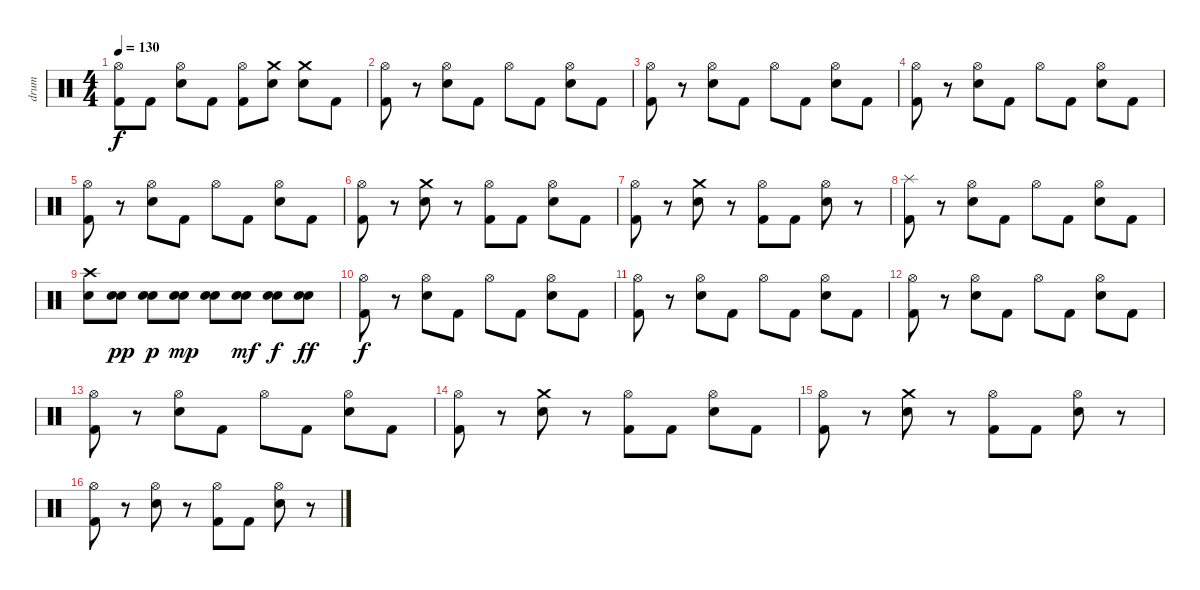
\track ("drum" "drum") {instrument percussion}
\staff {score}
\articulation defaults
\ts (4 4)
\tempo 130
\clef neutral
\ks c
("Hi-Hat (open)" "Kick (hit) 2").8{dy f} "Kick (hit) 2".8 ("Hi-Hat (open)" "Electric Snare (hit)").8 "Kick (hit) 2".8 ("Kick (hit) 2" "Hi-Hat (open)").8 ("Crash medium (hit)" "Electric Snare (hit)").8 ("Crash medium (hit)" "Electric Snare (hit)").8 "Kick (hit) 2".8 |
("Hi-Hat (open)" "Kick (hit) 2").8 r.8 ("Hi-Hat (open)" "Electric Snare (hit)").8 "Kick (hit) 2".8 "Hi-Hat (open)".8 "Kick (hit) 2".8 ("Hi-Hat (open)" "Electric Snare (hit)").8 "Kick (hit) 2".8 |
("Hi-Hat (open)" "Kick (hit) 2").8 r.8 ("Hi-Hat (open)" "Electric Snare (hit)").8 "Kick (hit) 2".8 "Hi-Hat (open)".8 "Kick (hit) 2".8 ("Hi-Hat (open)" "Electric Snare (hit)").8 "Kick (hit) 2".8 |
("Hi-Hat (open)" "Kick (hit) 2").8 r.8 ("Hi-Hat (open)" "Electric Snare (hit)").8 "Kick (hit) 2".8 "Hi-Hat (open)".8 "Kick (hit) 2".8 ("Hi-Hat (open)" "Electric Snare (hit)").8 "Kick (hit) 2".8 |
("Hi-Hat (open)" "Kick (hit) 2").8 r.8 ("Hi-Hat (open)" "Electric Snare (hit)").8 "Kick (hit) 2".8 "Hi-Hat (open)".8 "Kick (hit) 2".8 ("Hi-Hat (open)" "Electric Snare (hit)").8 "Kick (hit) 2".8 |
("Hi-Hat (open)" "Kick (hit) 2").8 r.8 ("Crash medium (hit)" "Electric Snare (hit)").8 r.8 ("Hi-Hat (open)" "Kick (hit) 2").8 "Kick (hit) 2".8 ("Hi-Hat (open)" "Electric Snare (hit)").8 "Kick (hit) 2".8 |
("Hi-Hat (open)" "Kick (hit) 2").8 r.8 ("Crash medium (hit)" "Electric Snare (hit)").8 r.8 ("Hi-Hat (open)" "Kick (hit) 2").8 "Kick (hit) 2".8 ("Hi-Hat (open)" "Electric Snare (hit)").8 r.8 |
("Splash (hit)" "Kick (hit) 2").8 r.8 ("Hi-Hat (open)" "Electric Snare (hit)").8 "Kick (hit) 2".8 "Hi-Hat (open)".8 "Kick (hit) 2".8 ("Hi-Hat (open)" "Electric Snare (hit)").8 "Kick (hit) 2".8 |
("Crash high (hit)" "Electric Snare (hit)").8 ("Electric Snare (hit)" "Electric Snare (hit)").8{dy pp} ("Electric Snare (hit)" "Electric Snare (hit)").8{dy p} ("Electric Snare (hit)" "Electric Snare (hit)").8{dy mp} ("Electric Snare (hit)" "Electric Snare (hit)").8 ("Electric Snare (hit)" "Electric Snare (hit)").8{dy mf} ("Electric Snare (hit)" "Electric Snare (hit)").8{dy f} ("Electric Snare (hit)" "Electric Snare (hit)").8{dy ff} |
("Hi-Hat (open)" "Kick (hit) 2").8{dy f} r.8 ("Hi-Hat (open)" "Electric Snare (hit)").8 "Kick (hit) 2".8 "Hi-Hat (open)".8 "Kick (hit) 2".8 ("Hi-Hat (open)" "Electric Snare (hit)").8 "Kick (hit) 2".8 |
("Hi-Hat (open)" "Kick (hit) 2").8 r.8 ("Hi-Hat (open)" "Electric Snare (hit)").8 "Kick (hit) 2".8 "Hi-Hat (open)".8 "Kick (hit) 2".8 ("Hi-Hat (open)" "Electric Snare (hit)").8 "Kick (hit) 2".8 |
("Hi-Hat (open)" "Kick (hit) 2").8 r.8 ("Hi-Hat (open)" "Electric Snare (hit)").8 "Kick (hit) 2".8 "Hi-Hat (open)".8 "Kick (hit) 2".8 ("Hi-Hat (open)" "Electric Snare (hit)").8 "Kick (hit) 2".8 |
("Hi-Hat (open)" "Kick (hit) 2").8 r.8 ("Hi-Hat (open)" "Electric Snare (hit)").8 "Kick (hit) 2".8 "Hi-Hat (open)".8 "Kick (hit) 2".8 ("Hi-Hat (open)" "Electric Snare (hit)").8 "Kick (hit) 2".8 |
("Hi-Hat (open)" "Kick (hit) 2").8 r.8 ("Crash medium (hit)" "Electric Snare (hit)").8 r.8 ("Hi-Hat (open)" "Kick (hit) 2").8 "Kick (hit) 2".8 ("Hi-Hat (open)" "Electric Snare (hit)").8 "Kick (hit) 2".8 |
("Hi-Hat (open)" "Kick (hit) 2").8 r.8 ("Crash medium (hit)" "Electric Snare (hit)").8 r.8 ("Hi-Hat (open)" "Kick (hit) 2").8 "Kick (hit) 2".8 ("Hi-Hat (open)" "Electric Snare (hit)").8 r.8 |
("Hi-Hat (open)" "Kick (hit) 2").8 r.8 ("Hi-Hat (open)" "Electric Snare (hit)").8 r.8 ("Hi-Hat (open)" "Kick (hit) 2").8 "Kick (hit) 2".8 ("Hi-Hat (open)" "Electric Snare (hit)").8 r.8
